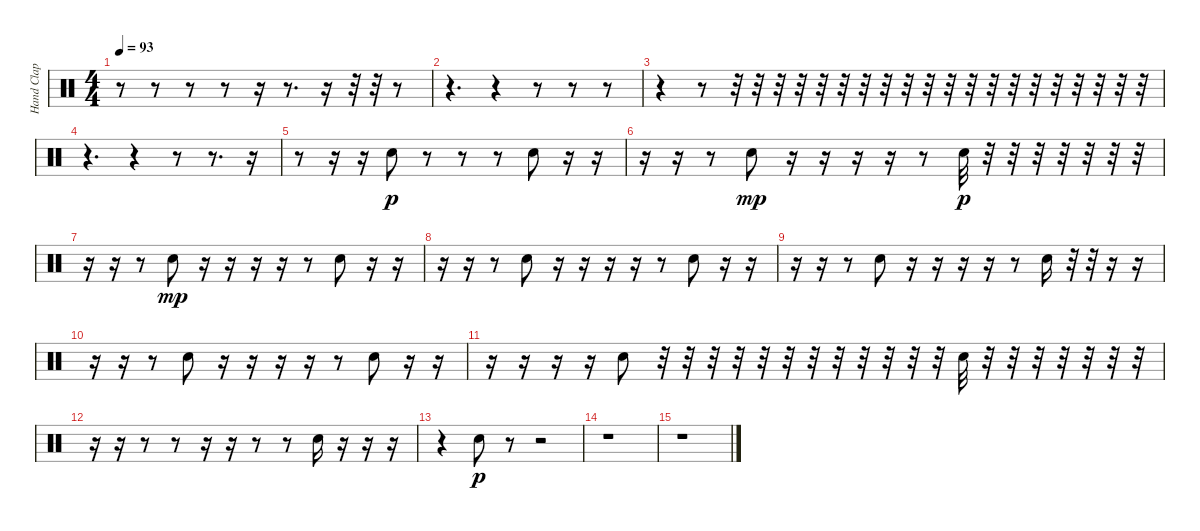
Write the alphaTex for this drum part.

\track ("Hand Clap" "Hand Clap") {instrument percussion}
\staff {score}
\articulation defaults
\ts (4 4)
\tempo 93
\clef neutral
\ks c
r.8{dy mp} r.8 r.8 r.8 r.16 r.8{d} r.16 r.32 r.32 r.8 |
r.4{d} r.4 r.8 r.8 r.8 |
r.4 r.8 r.32 r.32 r.32 r.32 r.32 r.32 r.32 r.32 r.32 r.32 r.32 r.32 r.32 r.32 r.32 r.32 r.32 r.32 r.32 r.32 |
r.4{d} r.4 r.8 r.8{d} r.16 |
r.8 r.16 r.16 "Hand Clap (hit)".8{dy p} r.8 r.8 r.8 "Hand Clap (hit)".8 r.16 r.16 |
r.16 r.16 r.8 "Hand Clap (hit)".8{dy mp} r.16 r.16 r.16 r.16 r.8 "Hand Clap (hit)".32{dy p} r.32 r.32 r.32 r.32 r.32 r.32 r.32 |
r.16 r.16 r.8 "Hand Clap (hit)".8{dy mp} r.16 r.16 r.16 r.16 r.8 "Hand Clap (hit)".8 r.16 r.16 |
r.16 r.16 r.8 "Hand Clap (hit)".8 r.16 r.16 r.16 r.16 r.8 "Hand Clap (hit)".8 r.16 r.16 |
r.16 r.16 r.8 "Hand Clap (hit)".8 r.16 r.16 r.16 r.16 r.8 "Hand Clap (hit)".16 r.32 r.32 r.16 r.16 |
r.16 r.16 r.8 "Hand Clap (hit)".8 r.16 r.16 r.16 r.16 r.8 "Hand Clap (hit)".8 r.16 r.16 |
r.16 r.16 r.16 r.16 "Hand Clap (hit)".8 r.32 r.32 r.32 r.32 r.32 r.32 r.32 r.32 r.32 r.32 r.32 r.32 "Hand Clap (hit)".32 r.32 r.32 r.32 r.32 r.32 r.32 r.32 |
r.16 r.16 r.8 r.8 r.16 r.16 r.8 r.8 "Hand Clap (hit)".16 r.16 r.16 r.16 |
r.4 "Hand Clap (hit)".8{dy p} r.8 r.2 |
r.1 |
r.1
